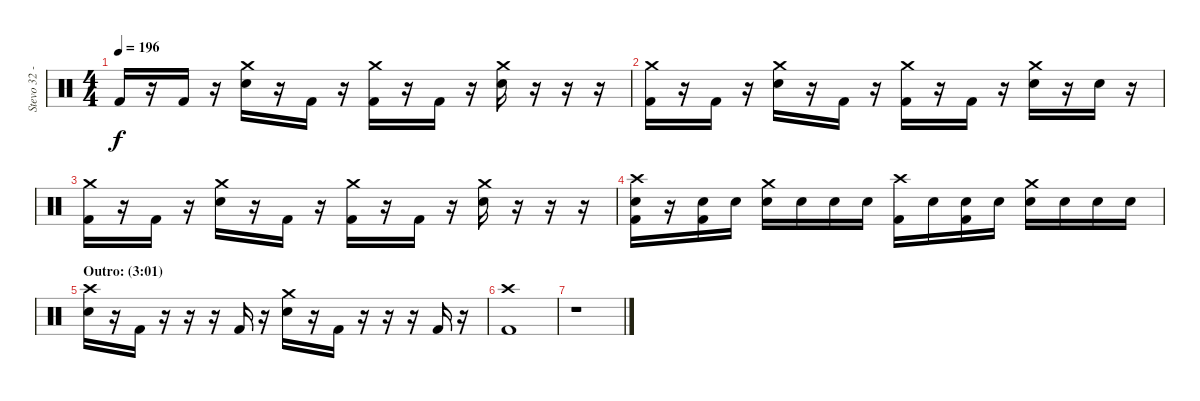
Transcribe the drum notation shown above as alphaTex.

\track ("Stevo 32 - Drums" "Stevo 32 -") {instrument percussion}
\staff {score}
\articulation defaults
\ts (4 4)
\tempo 196
\clef neutral
\ks c "Kick (hit) 2".16{dy f}
r.16 "Kick (hit) 2".16 r.16 ("Crash medium (hit)" "Snare (hit) 2").16 r.16 "Kick (hit) 2".16 r.16 ("Crash medium (hit)" "Kick (hit) 2").16 r.16 "Kick (hit) 2".16 r.16 ("Crash medium (hit)" "Snare (hit) 2").16 r.16 r.16 r.16 |
("Crash medium (hit)" "Kick (hit) 2").16 r.16 "Kick (hit) 2".16 r.16 ("Crash medium (hit)" "Snare (hit) 2").16 r.16 "Kick (hit) 2".16 r.16 ("Crash medium (hit)" "Kick (hit) 2").16 r.16 "Kick (hit) 2".16 r.16 ("Crash medium (hit)" "Snare (hit) 2").16 r.16 "Snare (hit) 2".16 r.16 |
("Crash medium (hit)" "Kick (hit) 2").16 r.16 "Kick (hit) 2".16 r.16 ("Crash medium (hit)" "Snare (hit) 2").16 r.16 "Kick (hit) 2".16 r.16 ("Crash medium (hit)" "Kick (hit) 2").16 r.16 "Kick (hit) 2".16 r.16 ("Crash medium (hit)" "Snare (hit) 2").16 r.16 r.16 r.16 |
("Crash high (hit)" "Snare (hit) 2" "Kick (hit) 2").16 r.16 ("Snare (hit) 2" "Kick (hit) 2").16 "Snare (hit) 2".16 ("Crash medium (hit)" "Snare (hit) 2").16 "Snare (hit) 2".16 "Snare (hit) 2".16 "Snare (hit) 2".16 ("Crash high (hit)" "Kick (hit) 2").16 "Snare (hit) 2".16 ("Snare (hit) 2" "Kick (hit) 2").16 "Snare (hit) 2".16 ("Crash medium (hit)" "Snare (hit) 2").16 "Snare (hit) 2".16 "Snare (hit) 2".16 "Snare (hit) 2".16 |
\section ("" "Outro: (3:01)")
("Crash high (hit)" "Snare (hit) 2").16 r.16 "Kick (hit) 2".16 r.16 r.16 r.16 "Kick (hit) 2".16 r.16 ("Crash medium (hit)" "Snare (hit) 2").16 r.16 "Kick (hit) 2".16 r.16 r.16 r.16 "Kick (hit) 2".16 r.16 |
("Crash high (hit)" "Kick (hit) 2").1 |
r.1
